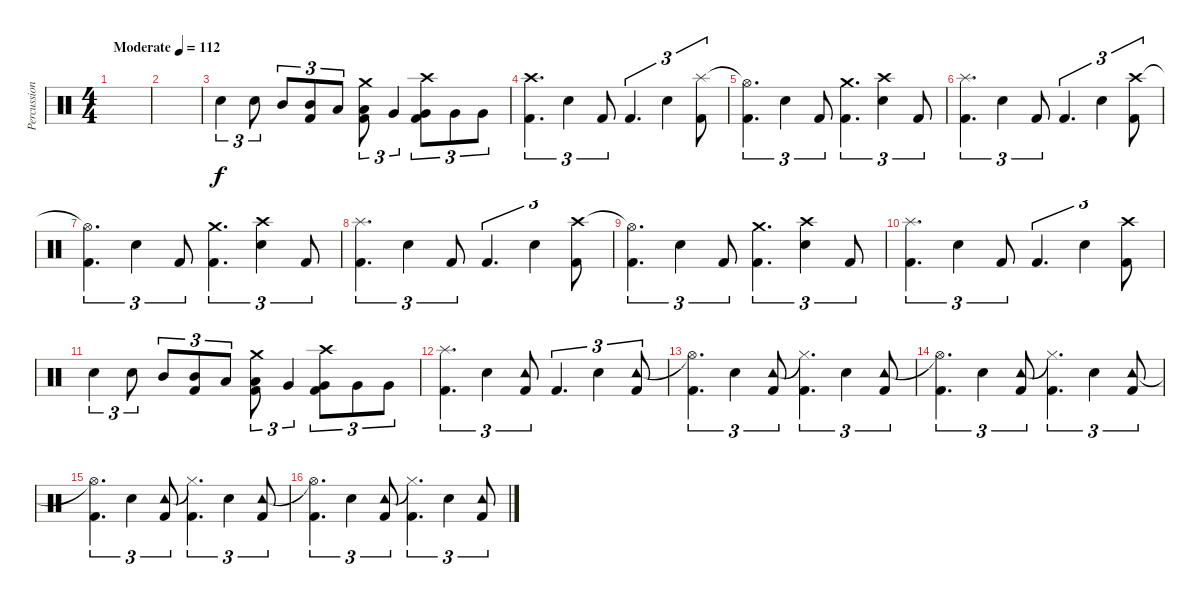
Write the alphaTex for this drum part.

\track ("Percussioni" "Percussion") {instrument percussion}
\staff {score}
\articulation defaults
\ts (4 4)
\tempo (112 "Moderate")
\clef neutral
\ks c
|
|
"Snare (hit) 2".4{tu (3 2)} "Snare (hit) 2".8{tu (3 2)} "Mid Tom (hit)".8{tu (3 2)} ("Mid Tom (hit)" "Kick (hit) 2").8{tu (3 2)} "Low Tom (hit)".8{tu (3 2)} ("Crash medium (hit)" "Low Tom (hit)" "Kick (hit) 2").8{tu (3 2)} "Very Low Tom (hit)".4{tu (3 2)} ("Crash high (hit)" "Very Low Tom (hit)" "Kick (hit) 2").8{tu (3 2)} "Very Low Tom (hit)".8{tu (3 2)} "Very Low Tom (hit)".8{tu (3 2)} |
("Crash high (hit)" "Kick (hit) 2").4{d tu (3 2)} "Snare (hit) 2".4{tu (3 2)} "Kick (hit) 2".8{tu (3 2)} "Kick (hit) 2".4{d tu (3 2)} "Snare (hit) 2".4{tu (3 2)} ("Splash (hit)" "Kick (hit) 2").8{tu (3 2)} |
("Hi-Hat (open)"{t} "Kick (hit) 2").4{d tu (3 2)} "Snare (hit) 2".4{tu (3 2)} "Kick (hit) 2".8{tu (3 2)} ("Crash medium (hit)" "Kick (hit) 2").4{d tu (3 2)} ("Crash high (hit)" "Snare (hit) 2").4{tu (3 2)} "Kick (hit) 2".8{tu (3 2)} |
("Splash (hit)" "Kick (hit) 2").4{d tu (3 2)} "Snare (hit) 2".4{tu (3 2)} "Kick (hit) 2".8{tu (3 2)} "Kick (hit) 2".4{d tu (3 2)} "Snare (hit) 2".4{tu (3 2)} ("Crash high (hit)" "Kick (hit) 2").8{tu (3 2)} |
("Hi-Hat (open)"{t} "Kick (hit) 2").4{d tu (3 2)} "Snare (hit) 2".4{tu (3 2)} "Kick (hit) 2".8{tu (3 2)} ("Crash medium (hit)" "Kick (hit) 2").4{d tu (3 2)} ("Crash high (hit)" "Snare (hit) 2").4{tu (3 2)} "Kick (hit) 2".8{tu (3 2)} |
("Splash (hit)" "Kick (hit) 2").4{d tu (3 2)} "Snare (hit) 2".4{tu (3 2)} "Kick (hit) 2".8{tu (3 2)} "Kick (hit) 2".4{d tu (3 2)} "Snare (hit) 2".4{tu (3 2)} ("Crash high (hit)" "Kick (hit) 2").8{tu (3 2)} |
("Hi-Hat (open)"{t} "Kick (hit) 2").4{d tu (3 2)} "Snare (hit) 2".4{tu (3 2)} "Kick (hit) 2".8{tu (3 2)} ("Crash medium (hit)" "Kick (hit) 2").4{d tu (3 2)} ("Crash high (hit)" "Snare (hit) 2").4{tu (3 2)} "Kick (hit) 2".8{tu (3 2)} |
("Splash (hit)" "Kick (hit) 2").4{d tu (3 2)} "Snare (hit) 2".4{tu (3 2)} "Kick (hit) 2".8{tu (3 2)} "Kick (hit) 2".4{d tu (3 2)} "Snare (hit) 2".4{tu (3 2)} ("Crash high (hit)" "Kick (hit) 2").8{tu (3 2)} |
"Snare (hit) 2".4{tu (3 2)} "Snare (hit) 2".8{tu (3 2)} "Mid Tom (hit)".8{tu (3 2)} ("Mid Tom (hit)" "Kick (hit) 2").8{tu (3 2)} "Low Tom (hit)".8{tu (3 2)} ("Crash medium (hit)" "Low Tom (hit)" "Kick (hit) 2").8{tu (3 2)} "Very Low Tom (hit)".4{tu (3 2)} ("Crash high (hit)" "Very Low Tom (hit)" "Kick (hit) 2").8{tu (3 2)} "Very Low Tom (hit)".8{tu (3 2)} "Very Low Tom (hit)".8{tu (3 2)} |
("Splash (hit)" "Kick (hit) 2").4{d tu (3 2)} "Snare (hit) 2".4{tu (3 2)} ("Tambourine (hit)" "Kick (hit) 2").8{tu (3 2)} "Kick (hit) 2".4{d tu (3 2)} "Snare (hit) 2".4{tu (3 2)} ("Tambourine (hit)" "Kick (hit) 2").8{tu (3 2)} |
("Hi-Hat (open)"{t} "Kick (hit) 2").4{d tu (3 2)} "Snare (hit) 2".4{tu (3 2)} ("Tambourine (hit)" "Kick (hit) 2").8{tu (3 2)} ("Hi-Hat (closed)"{t} "Kick (hit) 2").4{d tu (3 2)} "Snare (hit) 2".4{tu (3 2)} ("Tambourine (hit)" "Kick (hit) 2").8{tu (3 2)} |
("Hi-Hat (open)"{t} "Kick (hit) 2").4{d tu (3 2)} "Snare (hit) 2".4{tu (3 2)} ("Tambourine (hit)" "Kick (hit) 2").8{tu (3 2)} ("Hi-Hat (closed)"{t} "Kick (hit) 2").4{d tu (3 2)} "Snare (hit) 2".4{tu (3 2)} ("Tambourine (hit)" "Kick (hit) 2").8{tu (3 2)} |
("Hi-Hat (open)"{t} "Kick (hit) 2").4{d tu (3 2)} "Snare (hit) 2".4{tu (3 2)} ("Tambourine (hit)" "Kick (hit) 2").8{tu (3 2)} ("Hi-Hat (closed)"{t} "Kick (hit) 2").4{d tu (3 2)} "Snare (hit) 2".4{tu (3 2)} ("Tambourine (hit)" "Kick (hit) 2").8{tu (3 2)} |
("Hi-Hat (open)"{t} "Kick (hit) 2").4{d tu (3 2)} "Snare (hit) 2".4{tu (3 2)} ("Tambourine (hit)" "Kick (hit) 2").8{tu (3 2)} ("Hi-Hat (closed)"{t} "Kick (hit) 2").4{d tu (3 2)} "Snare (hit) 2".4{tu (3 2)} ("Tambourine (hit)" "Kick (hit) 2").8{tu (3 2)}
